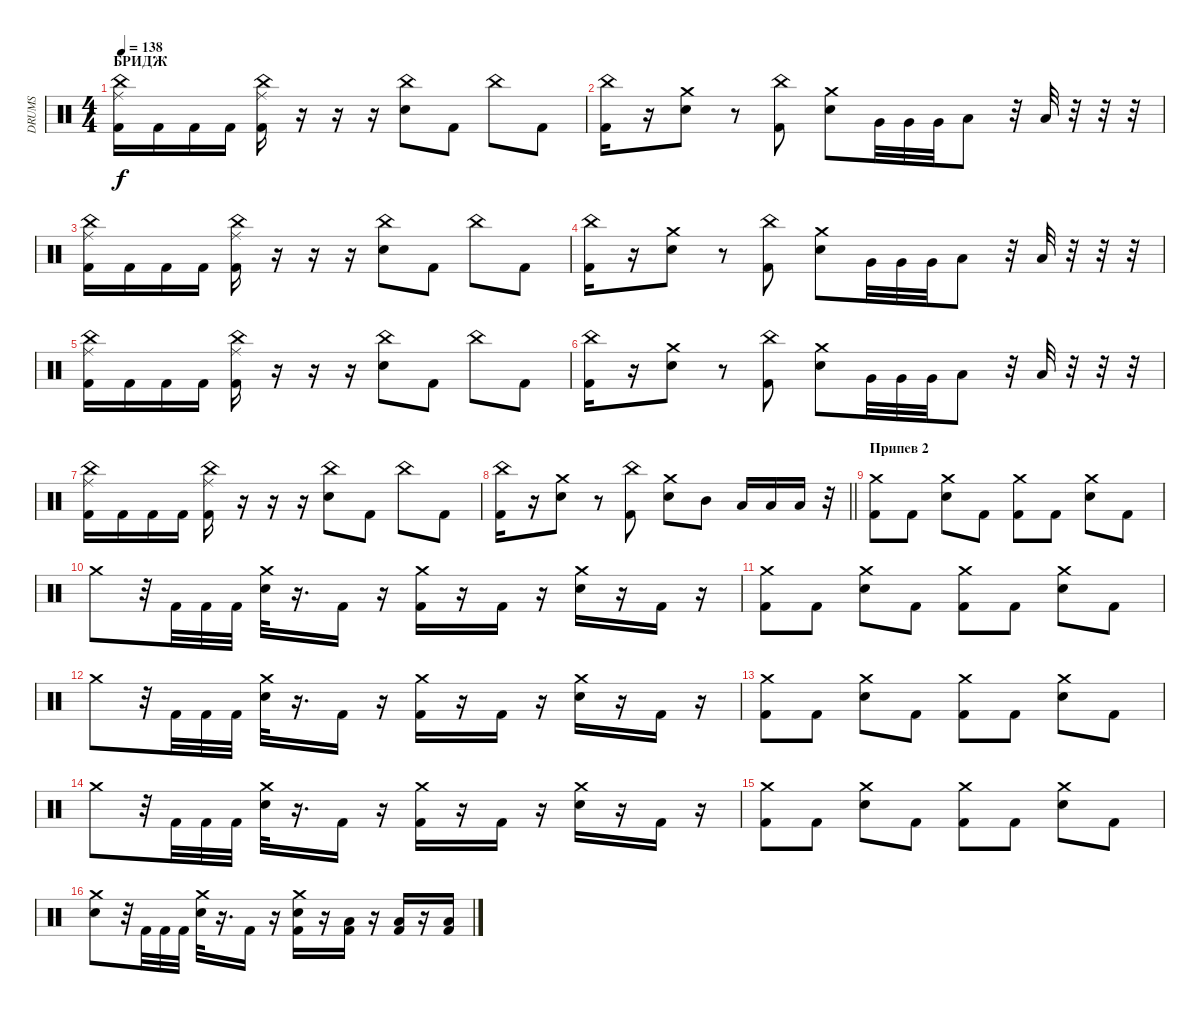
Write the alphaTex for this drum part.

\track ("DRUMS" "DRUMS") {instrument percussion}
\staff {score}
\articulation defaults
\ts (4 4)
\section ("" "БРИДЖ")
\tempo 138
\clef neutral
\ks c
("Ride (middle)" "China (hit)" "Kick (hit) 2").16{dy f} "Kick (hit) 2".16 "Kick (hit) 2".16 "Kick (hit) 2".16 ("Ride (middle)" "China (hit)" "Kick (hit) 2").16 r.16 r.16 r.16 ("China (hit)" "Electric Snare (hit)").8 "Kick (hit) 2".8 "China (hit)".8 "Kick (hit) 2".8 |
("China (hit)" "Kick (hit) 2").16 r.16 ("Crash medium (hit)" "Electric Snare (hit)").8 r.8 ("China (hit)" "Kick (hit) 2").8 ("Crash medium (hit)" "Electric Snare (hit)").8 "Very Low Tom (hit)".32 "Very Low Tom (hit)".32 "Very Low Tom (hit)".32 "Low Floor Tom (hit)".8 r.32 "Low Floor Tom (hit)".32 r.32 r.32 r.32 |
("Ride (middle)" "China (hit)" "Kick (hit) 2").16 "Kick (hit) 2".16 "Kick (hit) 2".16 "Kick (hit) 2".16 ("Ride (middle)" "China (hit)" "Kick (hit) 2").16 r.16 r.16 r.16 ("China (hit)" "Electric Snare (hit)").8 "Kick (hit) 2".8 "China (hit)".8 "Kick (hit) 2".8 |
("China (hit)" "Kick (hit) 2").16 r.16 ("Crash medium (hit)" "Electric Snare (hit)").8 r.8 ("China (hit)" "Kick (hit) 2").8 ("Crash medium (hit)" "Electric Snare (hit)").8 "Very Low Tom (hit)".32 "Very Low Tom (hit)".32 "Very Low Tom (hit)".32 "Low Floor Tom (hit)".8 r.32 "Low Floor Tom (hit)".32 r.32 r.32 r.32 |
("Ride (middle)" "China (hit)" "Kick (hit) 2").16 "Kick (hit) 2".16 "Kick (hit) 2".16 "Kick (hit) 2".16 ("Ride (middle)" "China (hit)" "Kick (hit) 2").16 r.16 r.16 r.16 ("China (hit)" "Electric Snare (hit)").8 "Kick (hit) 2".8 "China (hit)".8 "Kick (hit) 2".8 |
("China (hit)" "Kick (hit) 2").16 r.16 ("Crash medium (hit)" "Electric Snare (hit)").8 r.8 ("China (hit)" "Kick (hit) 2").8 ("Crash medium (hit)" "Electric Snare (hit)").8 "Very Low Tom (hit)".32 "Very Low Tom (hit)".32 "Very Low Tom (hit)".32 "Low Floor Tom (hit)".8 r.32 "Low Floor Tom (hit)".32 r.32 r.32 r.32 |
("Ride (middle)" "China (hit)" "Kick (hit) 2").16 "Kick (hit) 2".16 "Kick (hit) 2".16 "Kick (hit) 2".16 ("Ride (middle)" "China (hit)" "Kick (hit) 2").16 r.16 r.16 r.16 ("China (hit)" "Electric Snare (hit)").8 "Kick (hit) 2".8 "China (hit)".8 "Kick (hit) 2".8 |
\barLineRight lightlight
("China (hit)" "Kick (hit) 2").16 r.16 ("Crash medium (hit)" "Electric Snare (hit)").8 r.8 ("China (hit)" "Kick (hit) 2").8 ("Crash medium (hit)" "Electric Snare (hit)").8 "Mid Tom (hit)".8 "Low Tom (hit)".16 "Low Tom (hit)".16 "Low Tom (hit)".16 r.32 |
\section ("" "Припев 2")
("Crash medium (hit)" "Kick (hit) 2").8 "Kick (hit) 2".8 ("Crash medium (hit)" "Electric Snare (hit)").8 "Kick (hit) 2".8 ("Crash medium (hit)" "Kick (hit) 2").8 "Kick (hit) 2".8 ("Crash medium (hit)" "Electric Snare (hit)").8 "Kick (hit) 2".8 |
"Crash medium (hit)".8 r.32 "Kick (hit) 2".32 "Kick (hit) 2".32 "Kick (hit) 2".32 ("Crash medium (hit)" "Electric Snare (hit)").32 r.16{d} "Kick (hit) 2".16 r.16 ("Crash medium (hit)" "Kick (hit) 2").16 r.16 "Kick (hit) 2".16 r.16 ("Crash medium (hit)" "Electric Snare (hit)").16 r.16 "Kick (hit) 2".16 r.16 |
("Crash medium (hit)" "Kick (hit) 2").8 "Kick (hit) 2".8 ("Crash medium (hit)" "Electric Snare (hit)").8 "Kick (hit) 2".8 ("Crash medium (hit)" "Kick (hit) 2").8 "Kick (hit) 2".8 ("Crash medium (hit)" "Electric Snare (hit)").8 "Kick (hit) 2".8 |
"Crash medium (hit)".8 r.32 "Kick (hit) 2".32 "Kick (hit) 2".32 "Kick (hit) 2".32 ("Crash medium (hit)" "Electric Snare (hit)").32 r.16{d} "Kick (hit) 2".16 r.16 ("Crash medium (hit)" "Kick (hit) 2").16 r.16 "Kick (hit) 2".16 r.16 ("Crash medium (hit)" "Electric Snare (hit)").16 r.16 "Kick (hit) 2".16 r.16 |
("Crash medium (hit)" "Kick (hit) 2").8 "Kick (hit) 2".8 ("Crash medium (hit)" "Electric Snare (hit)").8 "Kick (hit) 2".8 ("Crash medium (hit)" "Kick (hit) 2").8 "Kick (hit) 2".8 ("Crash medium (hit)" "Electric Snare (hit)").8 "Kick (hit) 2".8 |
"Crash medium (hit)".8 r.32 "Kick (hit) 2".32 "Kick (hit) 2".32 "Kick (hit) 2".32 ("Crash medium (hit)" "Electric Snare (hit)").32 r.16{d} "Kick (hit) 2".16 r.16 ("Crash medium (hit)" "Kick (hit) 2").16 r.16 "Kick (hit) 2".16 r.16 ("Crash medium (hit)" "Electric Snare (hit)").16 r.16 "Kick (hit) 2".16 r.16 |
("Crash medium (hit)" "Kick (hit) 2").8 "Kick (hit) 2".8 ("Crash medium (hit)" "Electric Snare (hit)").8 "Kick (hit) 2".8 ("Crash medium (hit)" "Kick (hit) 2").8 "Kick (hit) 2".8 ("Crash medium (hit)" "Electric Snare (hit)").8 "Kick (hit) 2".8 |
("Crash medium (hit)" "Electric Snare (hit)").8 r.32 "Kick (hit) 2".32 "Kick (hit) 2".32 "Kick (hit) 2".32 ("Crash medium (hit)" "Electric Snare (hit)").32 r.16{d} "Kick (hit) 2".16 r.16 ("Crash medium (hit)" "Electric Snare (hit)" "Kick (hit) 2").16 r.16 ("Kick (hit) 2" "Low Floor Tom (hit)").16 r.16 ("Kick (hit) 2" "Low Floor Tom (hit)").16 r.16 ("Kick (hit) 2" "Low Floor Tom (hit)").16
